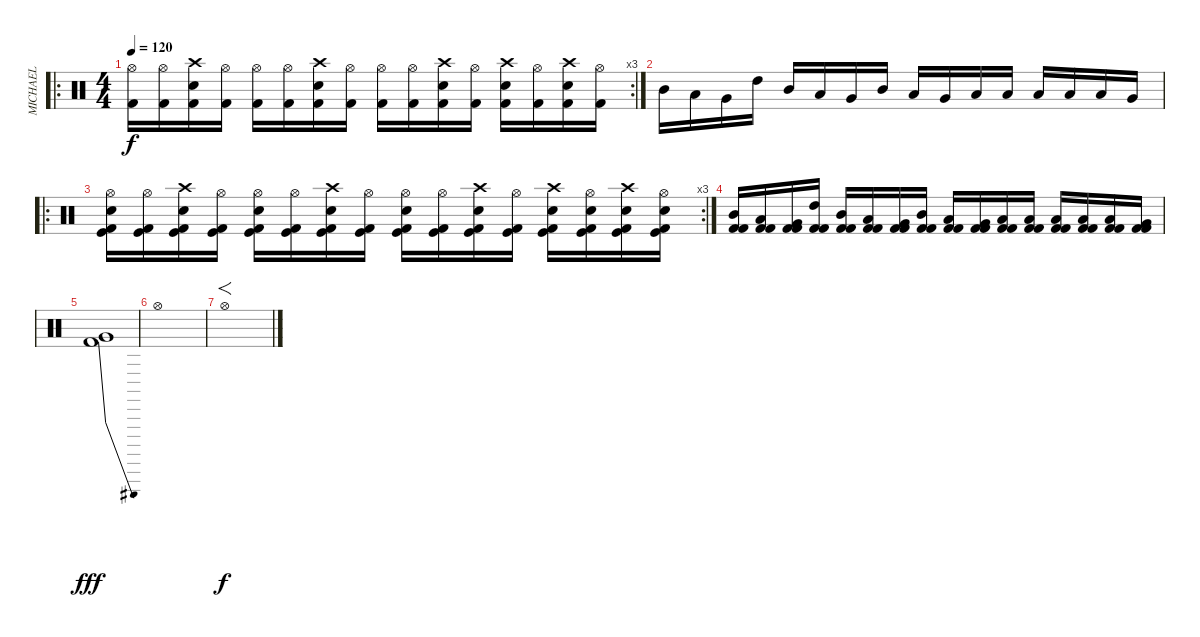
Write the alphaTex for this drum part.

\track ("MICHAEL" "MICHAEL") {instrument percussion}
\staff {score}
\articulation defaults
\ro
\rc 3
\ts (4 4)
\tempo 120
\clef neutral
\ks c
("Hi-Hat (open)" "Kick (hit) 2").16{dy f} ("Hi-Hat (open)" "Kick (hit) 2").16 ("Crash high (hit)" "Electric Snare (hit)" "Kick (hit) 2").16 ("Hi-Hat (open)" "Kick (hit) 2").16 ("Hi-Hat (open)" "Kick (hit) 2").16 ("Hi-Hat (open)" "Kick (hit) 2").16 ("Crash high (hit)" "Electric Snare (hit)" "Kick (hit) 2").16 ("Hi-Hat (open)" "Kick (hit) 2").16 ("Hi-Hat (open)" "Kick (hit) 2").16 ("Hi-Hat (open)" "Kick (hit) 2").16 ("Crash high (hit)" "Electric Snare (hit)" "Kick (hit) 2").16 ("Hi-Hat (open)" "Kick (hit) 2").16 ("Crash high (hit)" "Electric Snare (hit)" "Kick (hit) 2").16 ("Hi-Hat (open)" "Kick (hit) 2").16 ("Crash high (hit)" "Electric Snare (hit)" "Kick (hit) 2").16 ("Hi-Hat (open)" "Kick (hit) 2").16 |
"Mid Tom (hit)".16 "Low Tom (hit)".16 "Very Low Tom (hit)".16 "High Tom (hit)".16 "Mid Tom (hit)".16 "Low Tom (hit)".16 "Very Low Tom (hit)".16 "Mid Tom (hit)".16 "Low Tom (hit)".16 "Very Low Tom (hit)".16 "Low Tom (hit)".16 "Low Floor Tom (hit)".16 "Low Tom (hit)".16 "Low Floor Tom (hit)".16 "Low Floor Tom (hit)".16 "Very Low Tom (hit)".16 |
\ro
\rc 3
("Hi-Hat (open)" "Kick (hit)" "Electric Snare (hit)" "Kick (hit) 2").16 ("Hi-Hat (open)" "Kick (hit)" "Kick (hit) 2").16 ("Crash high (hit)" "Kick (hit)" "Electric Snare (hit)" "Kick (hit) 2").16 ("Hi-Hat (open)" "Kick (hit)" "Kick (hit) 2").16 ("Hi-Hat (open)" "Kick (hit)" "Electric Snare (hit)" "Kick (hit) 2").16 ("Hi-Hat (open)" "Kick (hit)" "Kick (hit) 2").16 ("Crash high (hit)" "Kick (hit)" "Electric Snare (hit)" "Kick (hit) 2").16 ("Hi-Hat (open)" "Kick (hit)" "Kick (hit) 2").16 ("Hi-Hat (open)" "Kick (hit)" "Electric Snare (hit)" "Kick (hit) 2").16 ("Hi-Hat (open)" "Kick (hit)" "Kick (hit) 2").16 ("Crash high (hit)" "Kick (hit)" "Electric Snare (hit)" "Kick (hit) 2").16 ("Hi-Hat (open)" "Kick (hit)" "Kick (hit) 2").16 ("Crash high (hit)" "Kick (hit)" "Electric Snare (hit)" "Kick (hit) 2").16 ("Hi-Hat (open)" "Kick (hit)" "Electric Snare (hit)" "Kick (hit) 2").16 ("Crash high (hit)" "Kick (hit)" "Electric Snare (hit)" "Kick (hit) 2").16 ("Hi-Hat (open)" "Kick (hit)" "Electric Snare (hit)" "Kick (hit) 2").16 |
("Kick (hit) 2" "Mid Tom (hit)" "Kick (hit) 2").16 ("Kick (hit) 2" "Low Tom (hit)" "Kick (hit) 2").16 ("Kick (hit) 2" "Very Low Tom (hit)" "Kick (hit) 2").16 ("Kick (hit) 2" "High Tom (hit)" "Kick (hit) 2").16 ("Kick (hit) 2" "Mid Tom (hit)" "Kick (hit) 2").16 ("Kick (hit) 2" "Low Tom (hit)" "Kick (hit) 2").16 ("Kick (hit) 2" "Very Low Tom (hit)" "Kick (hit) 2").16 ("Kick (hit) 2" "Mid Tom (hit)" "Kick (hit) 2").16 ("Kick (hit) 2" "Low Tom (hit)" "Kick (hit) 2").16 ("Kick (hit) 2" "Very Low Tom (hit)" "Kick (hit) 2").16 ("Kick (hit) 2" "Low Tom (hit)" "Kick (hit) 2").16 ("Kick (hit) 2" "Low Floor Tom (hit)" "Kick (hit) 2").16 ("Kick (hit) 2" "Low Tom (hit)" "Kick (hit) 2").16 ("Kick (hit) 2" "Low Floor Tom (hit)" "Kick (hit) 2").16 ("Kick (hit) 2" "Low Floor Tom (hit)" "Kick (hit) 2").16 ("Kick (hit) 2" "Very Low Tom (hit)" "Kick (hit) 2").16 |
("Very Low Tom (hit)"{be (bend 0 0 60 4)} "Kick (hit) 2").1{dy fff} |
"Hi-Hat (open)".1 |
"Hi-Hat (open)".1{f dy f}
